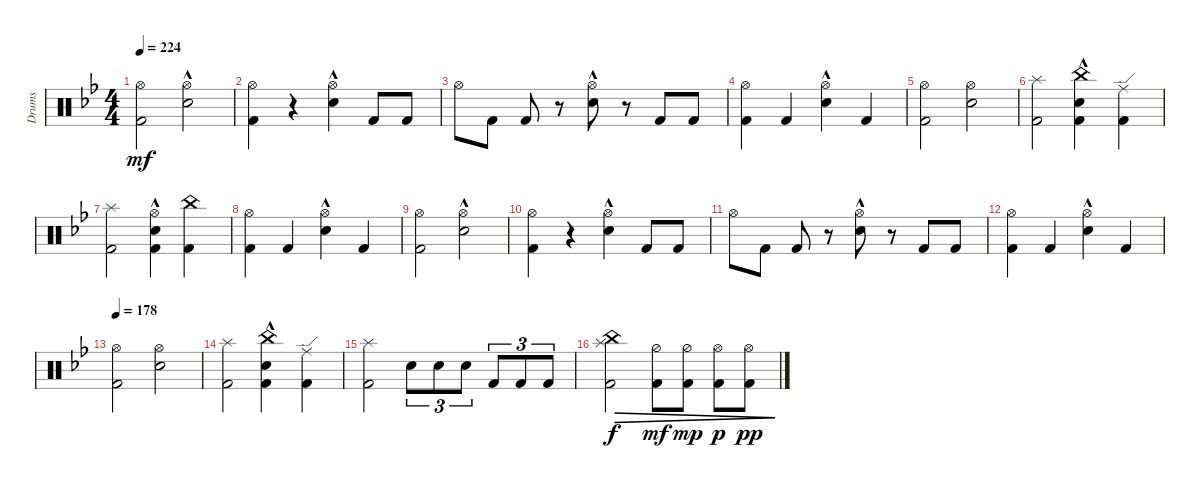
\defaultSystemsLayout 4
\bracketExtendMode groupsimilarinstruments
\otherSystemsTrackNameOrientation horizontal
\track ("Drumkit" "Drums") {instrument percussion}
\staff {score}
\articulation defaults
\ts (4 4)
\tempo 224
\clef neutral
\scale
0.333333
\ks bb
("Kick (hit) 2"{acc forcenatural} "Hi-Hat (open)"{acc forcenatural}).2{dy mf beam Down} ("Snare (hit) 2"{hac acc forcenatural} "Hi-Hat (open)"{acc forcenatural}).2{beam Down} |
\scale
0.333333 ("Kick (hit) 2"{acc forcenatural} "Hi-Hat (open)"{acc forcenatural}).4{beam Down} r.4{beam Down} ("Snare (hit) 2"{hac acc forcenatural} "Hi-Hat (open)"{acc forcenatural}).4{beam Down} "Kick (hit) 2"{acc forcenatural}.8{beam Up} "Kick (hit) 2"{acc forcenatural}.8{beam Up} |
\scale
0.333333 "Hi-Hat (open)"{acc forcenatural}.8{beam Down} "Kick (hit) 2"{acc forcenatural}.8{beam Down} "Kick (hit) 2"{acc forcenatural}.8{beam Up} r.8{beam Up} ("Snare (hit) 2"{hac acc forcenatural} "Hi-Hat (open)"{acc forcenatural}).8{beam Down} r.8{beam Down} "Kick (hit) 2"{acc forcenatural}.8{beam Up} "Kick (hit) 2"{acc forcenatural}.8{beam Up} |
\scale
0.333333 ("Kick (hit) 2"{acc forcenatural} "Hi-Hat (open)"{acc forcenatural}).4{beam Down} "Kick (hit) 2"{acc forcenatural}.4{beam Up} ("Snare (hit) 2"{hac acc forcenatural} "Hi-Hat (open)"{acc forcenatural}).4{beam Down} "Kick (hit) 2"{acc forcenatural}.4{beam Up} |
\scale
0.333333 ("Kick (hit) 2"{acc forcenatural} "Hi-Hat (open)"{acc forcenatural}).2{beam Down} ("Snare (hit) 2"{acc forcenatural} "Hi-Hat (open)"{acc forcenatural}).2{beam Down} |
\scale
0.333333 ("Splash (hit)"{acc forcenatural} "Kick (hit) 2"{acc forcenatural}).2{beam Down} ("Kick (hit) 2"{acc forcenatural} "Snare (hit) 2"{hac acc forcenatural} "China (hit)"{acc forcenatural}).4{beam Down} ("Kick (hit) 2"{acc forcenatural} "Ride (edge)"{acc forcenatural}).4{beam Down} |
\scale
0.333333 ("Kick (hit) 2"{acc forcenatural} "Splash (hit)"{acc forcenatural}).2{beam Down} ("Kick (hit) 2"{acc forcenatural} "Hi-Hat (open)"{acc forcenatural} "Snare (hit) 2"{hac acc forcenatural}).4{beam Down} ("Kick (hit) 2"{acc forcenatural} "China (hit)"{acc forcenatural}).4{beam Down} |
\scale
0.333333 ("Kick (hit) 2"{acc forcenatural} "Hi-Hat (open)"{acc forcenatural}).4{beam Down} "Kick (hit) 2"{acc forcenatural}.4{beam Up} ("Snare (hit) 2"{hac acc forcenatural} "Hi-Hat (open)"{acc forcenatural}).4{beam Down} "Kick (hit) 2"{acc forcenatural}.4{beam Up} |
\scale
0.333333 ("Kick (hit) 2"{acc forcenatural} "Hi-Hat (open)"{acc forcenatural}).2{beam Down} ("Snare (hit) 2"{hac acc forcenatural} "Hi-Hat (open)"{acc forcenatural}).2{beam Down} |
\scale
0.333333 ("Kick (hit) 2"{acc forcenatural} "Hi-Hat (open)"{acc forcenatural}).4{beam Down} r.4{beam Down} ("Snare (hit) 2"{hac acc forcenatural} "Hi-Hat (open)"{acc forcenatural}).4{beam Down} "Kick (hit) 2"{acc forcenatural}.8{beam Up} "Kick (hit) 2"{acc forcenatural}.8{beam Up} |
\scale
0.333333 "Hi-Hat (open)"{acc forcenatural}.8{beam Down} "Kick (hit) 2"{acc forcenatural}.8{beam Down} "Kick (hit) 2"{acc forcenatural}.8{beam Up} r.8{beam Up} ("Snare (hit) 2"{hac acc forcenatural} "Hi-Hat (open)"{acc forcenatural}).8{beam Down} r.8{beam Down} "Kick (hit) 2"{acc forcenatural}.8{beam Up} "Kick (hit) 2"{acc forcenatural}.8{beam Up} |
\scale
0.333333 ("Kick (hit) 2"{acc forcenatural} "Hi-Hat (open)"{acc forcenatural}).4{beam Down} "Kick (hit) 2"{acc forcenatural}.4{beam Up} ("Snare (hit) 2"{hac acc forcenatural} "Hi-Hat (open)"{acc forcenatural}).4{beam Down} "Kick (hit) 2"{acc forcenatural}.4{beam Up} |
\tempo 178
\scale
0.333333 ("Kick (hit) 2"{acc forcenatural} "Hi-Hat (open)"{acc forcenatural}).2{beam Down} ("Snare (hit) 2"{acc forcenatural} "Hi-Hat (open)"{acc forcenatural}).2{beam Down} |
\scale
0.333333 ("Splash (hit)"{acc forcenatural} "Kick (hit) 2"{acc forcenatural}).2{beam Down} ("Kick (hit) 2"{acc forcenatural} "Snare (hit) 2"{hac acc forcenatural} "China (hit)"{acc forcenatural}).4{beam Down} ("Kick (hit) 2"{acc forcenatural} "Ride (edge)"{acc forcenatural}).4{beam Down} |
\scale
0.333333 ("Kick (hit) 2"{acc forcenatural} "Splash (hit)"{acc forcenatural}).2{beam Down} "Snare (hit) 2"{acc forcenatural}.8{tu (3 2) beam Down} "Snare (hit) 2"{acc forcenatural}.8{tu (3 2) beam Down} "Snare (hit) 2"{acc forcenatural}.8{tu (3 2) beam Down} "Kick (hit) 2"{acc forcenatural}.8{tu (3 2) beam Up} "Kick (hit) 2"{acc forcenatural}.8{tu (3 2) beam Up} "Kick (hit) 2"{acc forcenatural}.8{tu (3 2) beam Up} |
\scale
0.333333 ("Splash (hit)"{acc forcenatural} "China (hit)"{acc forcenatural} "Kick (hit) 2"{acc forcenatural}).2{dec dy f beam Down} ("Hi-Hat (half)"{acc forcenatural} "Kick (hit) 2"{acc forcenatural}).8{dec dy mf beam Down} ("Hi-Hat (half)"{acc forcenatural} "Kick (hit) 2"{acc forcenatural}).8{dec dy mp beam Down} ("Hi-Hat (open)"{acc forcenatural} "Kick (hit) 2"{acc forcenatural}).8{dec dy p beam Down} ("Hi-Hat (open)"{acc forcenatural} "Kick (hit) 2"{acc forcenatural}).8{dec dy pp beam Down}
